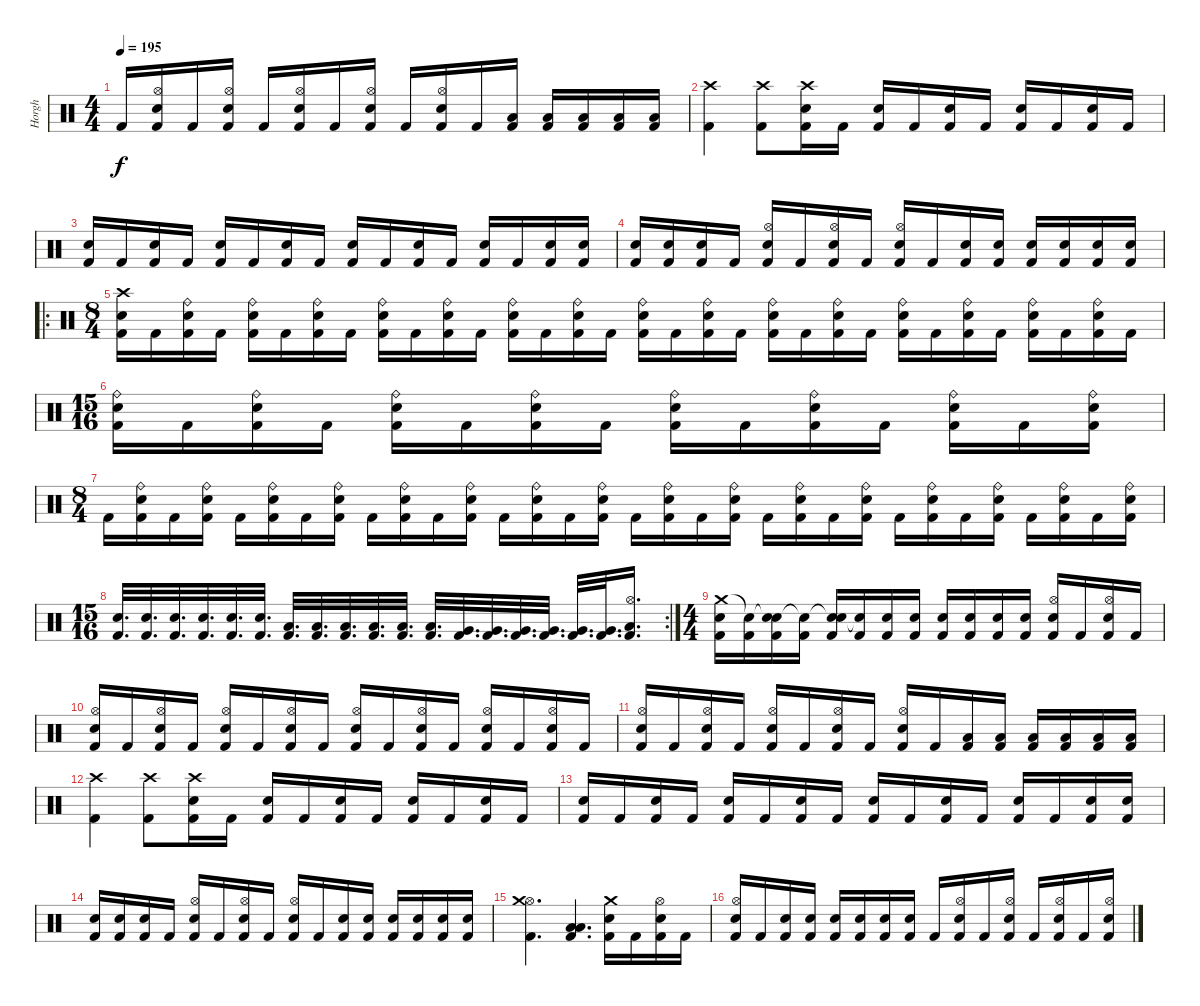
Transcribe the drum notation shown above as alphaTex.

\track ("Horgh" "Horgh") {instrument percussion}
\staff {score}
\articulation defaults
\ts (4 4)
\tempo 195
\clef neutral
\ks c "Kick (hit) 2".16{dy f}
("Hi-Hat (open)" "Electric Snare (hit)" "Kick (hit) 2").16 "Kick (hit) 2".16 ("Hi-Hat (open)" "Electric Snare (hit)" "Kick (hit) 2").16 "Kick (hit) 2".16 ("Hi-Hat (open)" "Electric Snare (hit)" "Kick (hit) 2").16 "Kick (hit) 2".16 ("Hi-Hat (open)" "Electric Snare (hit)" "Kick (hit) 2").16 "Kick (hit) 2".16 ("Hi-Hat (open)" "Electric Snare (hit)" "Kick (hit) 2").16 "Kick (hit) 2".16 ("Low Floor Tom (hit)" "Kick (hit) 2").16 ("Low Floor Tom (hit)" "Kick (hit) 2").16 ("Low Floor Tom (hit)" "Kick (hit) 2").16 ("Low Floor Tom (hit)" "Kick (hit) 2").16 ("Low Floor Tom (hit)" "Kick (hit) 2").16 |
("Crash high (hit)" "Kick (hit) 2").4 ("Crash high (hit)" "Kick (hit) 2").8 ("Crash high (hit)" "Electric Snare (hit)" "Kick (hit) 2").16 "Kick (hit) 2".16 ("Electric Snare (hit)" "Kick (hit) 2").16 "Kick (hit) 2".16 ("Electric Snare (hit)" "Kick (hit) 2").16 "Kick (hit) 2".16 ("Electric Snare (hit)" "Kick (hit) 2").16 "Kick (hit) 2".16 ("Electric Snare (hit)" "Kick (hit) 2").16 "Kick (hit) 2".16 |
("Electric Snare (hit)" "Kick (hit) 2").16 "Kick (hit) 2".16 ("Electric Snare (hit)" "Kick (hit) 2").16 "Kick (hit) 2".16 ("Electric Snare (hit)" "Kick (hit) 2").16 "Kick (hit) 2".16 ("Electric Snare (hit)" "Kick (hit) 2").16 "Kick (hit) 2".16 ("Electric Snare (hit)" "Kick (hit) 2").16 "Kick (hit) 2".16 ("Electric Snare (hit)" "Kick (hit) 2").16 "Kick (hit) 2".16 ("Electric Snare (hit)" "Kick (hit) 2").16 "Kick (hit) 2".16 ("Electric Snare (hit)" "Kick (hit) 2").16 ("Electric Snare (hit)" "Kick (hit) 2").16 |
("Electric Snare (hit)" "Kick (hit) 2").16 ("Electric Snare (hit)" "Kick (hit) 2").16 ("Electric Snare (hit)" "Kick (hit) 2").16 "Kick (hit) 2".16 ("Hi-Hat (open)" "Electric Snare (hit)" "Kick (hit) 2").16 "Kick (hit) 2".16 ("Hi-Hat (open)" "Electric Snare (hit)" "Kick (hit) 2").16 "Kick (hit) 2".16 ("Hi-Hat (open)" "Electric Snare (hit)" "Kick (hit) 2").16 "Kick (hit) 2".16 ("Electric Snare (hit)" "Kick (hit) 2").16 ("Electric Snare (hit)" "Kick (hit) 2").16 ("Electric Snare (hit)" "Kick (hit) 2").16 ("Electric Snare (hit)" "Kick (hit) 2").16 ("Electric Snare (hit)" "Kick (hit) 2").16 ("Electric Snare (hit)" "Kick (hit) 2").16 |
\ro
\ts (8 4)
("Crash high (hit)" "Electric Snare (hit)" "Kick (hit) 2").16 "Kick (hit) 2".16 ("Ride (bell)" "Electric Snare (hit)" "Kick (hit) 2").16 "Kick (hit) 2".16 ("Ride (bell)" "Electric Snare (hit)" "Kick (hit) 2").16 "Kick (hit) 2".16 ("Ride (bell)" "Electric Snare (hit)" "Kick (hit) 2").16 "Kick (hit) 2".16 ("Ride (bell)" "Electric Snare (hit)" "Kick (hit) 2").16 "Kick (hit) 2".16 ("Ride (bell)" "Electric Snare (hit)" "Kick (hit) 2").16 "Kick (hit) 2".16 ("Ride (bell)" "Electric Snare (hit)" "Kick (hit) 2").16 "Kick (hit) 2".16 ("Ride (bell)" "Electric Snare (hit)" "Kick (hit) 2").16 "Kick (hit) 2".16 ("Ride (bell)" "Electric Snare (hit)" "Kick (hit) 2").16 "Kick (hit) 2".16 ("Ride (bell)" "Electric Snare (hit)" "Kick (hit) 2").16 "Kick (hit) 2".16 ("Ride (bell)" "Electric Snare (hit)" "Kick (hit) 2").16 "Kick (hit) 2".16 ("Ride (bell)" "Electric Snare (hit)" "Kick (hit) 2").16 "Kick (hit) 2".16 ("Ride (bell)" "Electric Snare (hit)" "Kick (hit) 2").16 "Kick (hit) 2".16 ("Ride (bell)" "Electric Snare (hit)" "Kick (hit) 2").16 "Kick (hit) 2".16 ("Ride (bell)" "Electric Snare (hit)" "Kick (hit) 2").16 "Kick (hit) 2".16 ("Ride (bell)" "Electric Snare (hit)" "Kick (hit) 2").16 "Kick (hit) 2".16 |
\ts (15 16)
("Ride (bell)" "Electric Snare (hit)" "Kick (hit) 2").16 "Kick (hit) 2".16 ("Ride (bell)" "Electric Snare (hit)" "Kick (hit) 2").16 "Kick (hit) 2".16 ("Ride (bell)" "Electric Snare (hit)" "Kick (hit) 2").16 "Kick (hit) 2".16 ("Ride (bell)" "Electric Snare (hit)" "Kick (hit) 2").16 "Kick (hit) 2".16 ("Ride (bell)" "Electric Snare (hit)" "Kick (hit) 2").16 "Kick (hit) 2".16 ("Ride (bell)" "Electric Snare (hit)" "Kick (hit) 2").16 "Kick (hit) 2".16 ("Ride (bell)" "Electric Snare (hit)" "Kick (hit) 2").16 "Kick (hit) 2".16 ("Ride (bell)" "Electric Snare (hit)" "Kick (hit) 2").16 |
\ts (8 4)
"Kick (hit) 2".16 ("Ride (bell)" "Electric Snare (hit)" "Kick (hit) 2").16 "Kick (hit) 2".16 ("Ride (bell)" "Electric Snare (hit)" "Kick (hit) 2").16 "Kick (hit) 2".16 ("Ride (bell)" "Electric Snare (hit)" "Kick (hit) 2").16 "Kick (hit) 2".16 ("Ride (bell)" "Electric Snare (hit)" "Kick (hit) 2").16 "Kick (hit) 2".16 ("Ride (bell)" "Electric Snare (hit)" "Kick (hit) 2").16 "Kick (hit) 2".16 ("Ride (bell)" "Electric Snare (hit)" "Kick (hit) 2").16 "Kick (hit) 2".16 ("Ride (bell)" "Electric Snare (hit)" "Kick (hit) 2").16 "Kick (hit) 2".16 ("Ride (bell)" "Electric Snare (hit)" "Kick (hit) 2").16 "Kick (hit) 2".16 ("Ride (bell)" "Electric Snare (hit)" "Kick (hit) 2").16 "Kick (hit) 2".16 ("Ride (bell)" "Electric Snare (hit)" "Kick (hit) 2").16 "Kick (hit) 2".16 ("Ride (bell)" "Electric Snare (hit)" "Kick (hit) 2").16 "Kick (hit) 2".16 ("Ride (bell)" "Electric Snare (hit)" "Kick (hit) 2").16 "Kick (hit) 2".16 ("Ride (bell)" "Electric Snare (hit)" "Kick (hit) 2").16 "Kick (hit) 2".16 ("Ride (bell)" "Electric Snare (hit)" "Kick (hit) 2").16 "Kick (hit) 2".16 ("Ride (bell)" "Electric Snare (hit)" "Kick (hit) 2").16 "Kick (hit) 2".16 ("Ride (bell)" "Electric Snare (hit)" "Kick (hit) 2").16 |
\rc 2
\ts (15 16)
("Electric Snare (hit)" "Kick (hit) 2").32{d} ("Electric Snare (hit)" "Kick (hit) 2").32{d} ("Electric Snare (hit)" "Kick (hit) 2").32{d} ("Electric Snare (hit)" "Kick (hit) 2").32{d} ("Electric Snare (hit)" "Kick (hit) 2").32{d} ("Electric Snare (hit)" "Kick (hit) 2").32{d} ("Low Floor Tom (hit)" "Kick (hit) 2").32{d} ("Low Floor Tom (hit)" "Kick (hit) 2").32{d} ("Low Floor Tom (hit)" "Kick (hit) 2").32{d} ("Low Floor Tom (hit)" "Kick (hit) 2").32{d} ("Low Floor Tom (hit)" "Kick (hit) 2").32{d} ("Low Floor Tom (hit)" "Kick (hit) 2").32{d} ("Very Low Tom (hit)" "Kick (hit) 2").32{d} ("Very Low Tom (hit)" "Kick (hit) 2").32{d} ("Very Low Tom (hit)" "Kick (hit) 2").32{d} ("Very Low Tom (hit)" "Kick (hit) 2").32{d} ("Very Low Tom (hit)" "Kick (hit) 2").32{d} ("Very Low Tom (hit)" "Kick (hit) 2").32{d} ("Hi-Hat (open)" "Low Tom (hit)" "Kick (hit) 2").16{d} |
\ts (4 4)
("Crash medium (hit)" "Electric Snare (hit)" "Kick (hit) 2").16 ("Snare (hit)"{t} "Kick (hit) 2").16 ("Snare (hit)"{t} "Electric Snare (hit)" "Kick (hit) 2").16 ("Snare (hit)"{t} "Kick (hit) 2").16 ("Snare (hit)"{t} "Electric Snare (hit)" "Kick (hit) 2").16 ("Snare (hit)"{t} "Kick (hit) 2").16 ("Electric Snare (hit)" "Kick (hit) 2").16 ("Electric Snare (hit)" "Kick (hit) 2").16 ("Electric Snare (hit)" "Kick (hit) 2").16 ("Electric Snare (hit)" "Kick (hit) 2").16 ("Electric Snare (hit)" "Kick (hit) 2").16 ("Electric Snare (hit)" "Kick (hit) 2").16 ("Hi-Hat (open)" "Electric Snare (hit)" "Kick (hit) 2").16 "Kick (hit) 2".16 ("Hi-Hat (open)" "Electric Snare (hit)" "Kick (hit) 2").16 "Kick (hit) 2".16 |
("Hi-Hat (open)" "Electric Snare (hit)" "Kick (hit) 2").16 "Kick (hit) 2".16 ("Hi-Hat (open)" "Electric Snare (hit)" "Kick (hit) 2").16 "Kick (hit) 2".16 ("Hi-Hat (open)" "Electric Snare (hit)" "Kick (hit) 2").16 "Kick (hit) 2".16 ("Hi-Hat (open)" "Electric Snare (hit)" "Kick (hit) 2").16 "Kick (hit) 2".16 ("Hi-Hat (open)" "Electric Snare (hit)" "Kick (hit) 2").16 "Kick (hit) 2".16 ("Hi-Hat (open)" "Electric Snare (hit)" "Kick (hit) 2").16 "Kick (hit) 2".16 ("Hi-Hat (open)" "Electric Snare (hit)" "Kick (hit) 2").16 "Kick (hit) 2".16 ("Hi-Hat (open)" "Electric Snare (hit)" "Kick (hit) 2").16 "Kick (hit) 2".16 |
("Hi-Hat (open)" "Electric Snare (hit)" "Kick (hit) 2").16 "Kick (hit) 2".16 ("Hi-Hat (open)" "Electric Snare (hit)" "Kick (hit) 2").16 "Kick (hit) 2".16 ("Hi-Hat (open)" "Electric Snare (hit)" "Kick (hit) 2").16 "Kick (hit) 2".16 ("Hi-Hat (open)" "Electric Snare (hit)" "Kick (hit) 2").16 "Kick (hit) 2".16 ("Hi-Hat (open)" "Electric Snare (hit)" "Kick (hit) 2").16 "Kick (hit) 2".16 ("Low Floor Tom (hit)" "Kick (hit) 2").16 ("Low Floor Tom (hit)" "Kick (hit) 2").16 ("Low Floor Tom (hit)" "Kick (hit) 2").16 ("Low Floor Tom (hit)" "Kick (hit) 2").16 ("Low Floor Tom (hit)" "Kick (hit) 2").16 ("Low Floor Tom (hit)" "Kick (hit) 2").16 |
("Crash high (hit)" "Kick (hit) 2").4 ("Crash high (hit)" "Kick (hit) 2").8 ("Crash high (hit)" "Electric Snare (hit)" "Kick (hit) 2").16 "Kick (hit) 2".16 ("Electric Snare (hit)" "Kick (hit) 2").16 "Kick (hit) 2".16 ("Electric Snare (hit)" "Kick (hit) 2").16 "Kick (hit) 2".16 ("Electric Snare (hit)" "Kick (hit) 2").16 "Kick (hit) 2".16 ("Electric Snare (hit)" "Kick (hit) 2").16 "Kick (hit) 2".16 |
("Electric Snare (hit)" "Kick (hit) 2").16 "Kick (hit) 2".16 ("Electric Snare (hit)" "Kick (hit) 2").16 "Kick (hit) 2".16 ("Electric Snare (hit)" "Kick (hit) 2").16 "Kick (hit) 2".16 ("Electric Snare (hit)" "Kick (hit) 2").16 "Kick (hit) 2".16 ("Electric Snare (hit)" "Kick (hit) 2").16 "Kick (hit) 2".16 ("Electric Snare (hit)" "Kick (hit) 2").16 "Kick (hit) 2".16 ("Electric Snare (hit)" "Kick (hit) 2").16 "Kick (hit) 2".16 ("Electric Snare (hit)" "Kick (hit) 2").16 ("Electric Snare (hit)" "Kick (hit) 2").16 |
("Electric Snare (hit)" "Kick (hit) 2").16 ("Electric Snare (hit)" "Kick (hit) 2").16 ("Electric Snare (hit)" "Kick (hit) 2").16 "Kick (hit) 2".16 ("Hi-Hat (open)" "Electric Snare (hit)" "Kick (hit) 2").16 "Kick (hit) 2".16 ("Hi-Hat (open)" "Electric Snare (hit)" "Kick (hit) 2").16 "Kick (hit) 2".16 ("Hi-Hat (open)" "Electric Snare (hit)" "Kick (hit) 2").16 "Kick (hit) 2".16 ("Electric Snare (hit)" "Kick (hit) 2").16 ("Electric Snare (hit)" "Kick (hit) 2").16 ("Electric Snare (hit)" "Kick (hit) 2").16 ("Electric Snare (hit)" "Kick (hit) 2").16 ("Electric Snare (hit)" "Kick (hit) 2").16 ("Electric Snare (hit)" "Kick (hit) 2").16 |
("Hi-Hat (open)" "Crash medium (hit)" "Kick (hit) 2").4{d} ("Low Floor Tom (hit)" "Low Floor Tom (hit)" "Kick (hit) 2").4{d} ("Crash medium (hit)" "Electric Snare (hit)" "Kick (hit) 2").16 "Kick (hit) 2".16 ("Hi-Hat (open)" "Electric Snare (hit)" "Kick (hit) 2").16 "Kick (hit) 2".16 |
("Hi-Hat (open)" "Electric Snare (hit)" "Kick (hit) 2").16 "Kick (hit) 2".16 ("Electric Snare (hit)" "Kick (hit) 2").16 ("Electric Snare (hit)" "Kick (hit) 2").16 ("Electric Snare (hit)" "Kick (hit) 2").16 ("Electric Snare (hit)" "Kick (hit) 2").16 ("Electric Snare (hit)" "Kick (hit) 2").16 ("Electric Snare (hit)" "Kick (hit) 2").16 "Kick (hit) 2".16 ("Hi-Hat (open)" "Electric Snare (hit)" "Kick (hit) 2").16 "Kick (hit) 2".16 ("Hi-Hat (open)" "Electric Snare (hit)" "Kick (hit) 2").16 "Kick (hit) 2".16 ("Hi-Hat (open)" "Electric Snare (hit)" "Kick (hit) 2").16 "Kick (hit) 2".16 ("Hi-Hat (open)" "Electric Snare (hit)" "Kick (hit) 2").16
